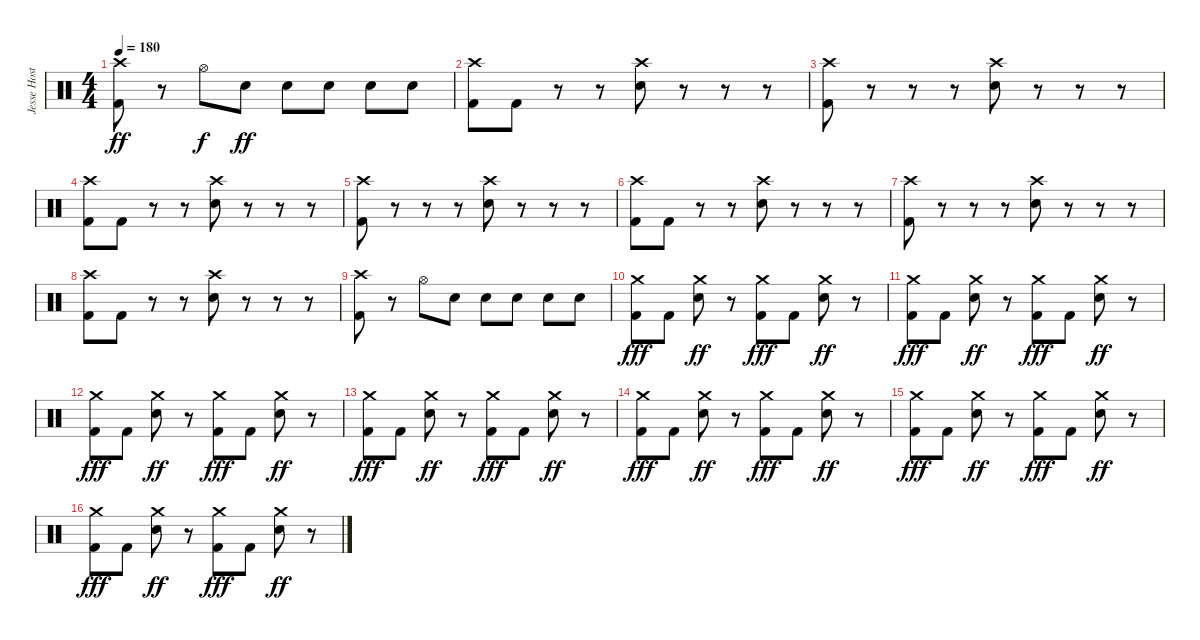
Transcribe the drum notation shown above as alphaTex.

\track ("Jesse Hostetler" "Jesse Host") {instrument percussion}
\staff {score}
\articulation defaults
\ts (4 4)
\tempo 180
\clef neutral
\ks c
("Crash high (hit)" "Kick (hit) 2").8{dy ff} r.8 "Hi-Hat (open)".8{dy f} "Electric Snare (hit)".8{dy ff} "Electric Snare (hit)".8 "Electric Snare (hit)".8 "Electric Snare (hit)".8 "Electric Snare (hit)".8 |
("Crash high (hit)" "Kick (hit) 2").8 "Kick (hit) 2".8 r.8 r.8 ("Crash high (hit)" "Electric Snare (hit)").8 r.8 r.8 r.8 |
("Crash high (hit)" "Kick (hit) 2").8 r.8 r.8 r.8 ("Crash high (hit)" "Electric Snare (hit)").8 r.8 r.8 r.8 |
("Crash high (hit)" "Kick (hit) 2").8 "Kick (hit) 2".8 r.8 r.8 ("Crash high (hit)" "Electric Snare (hit)").8 r.8 r.8 r.8 |
("Crash high (hit)" "Kick (hit) 2").8 r.8 r.8 r.8 ("Crash high (hit)" "Electric Snare (hit)").8 r.8 r.8 r.8 |
("Crash high (hit)" "Kick (hit) 2").8 "Kick (hit) 2".8 r.8 r.8 ("Crash high (hit)" "Electric Snare (hit)").8 r.8 r.8 r.8 |
("Crash high (hit)" "Kick (hit) 2").8 r.8 r.8 r.8 ("Crash high (hit)" "Electric Snare (hit)").8 r.8 r.8 r.8 |
("Crash high (hit)" "Kick (hit) 2").8 "Kick (hit) 2".8 r.8 r.8 ("Crash high (hit)" "Electric Snare (hit)").8 r.8 r.8 r.8 |
("Crash high (hit)" "Kick (hit) 2").8 r.8 "Hi-Hat (open)".8 "Electric Snare (hit)".8 "Electric Snare (hit)".8 "Electric Snare (hit)".8 "Electric Snare (hit)".8 "Electric Snare (hit)".8 |
("Crash medium (hit)" "Kick (hit) 2").8{dy fff} "Kick (hit) 2".8 ("Crash medium (hit)" "Electric Snare (hit)").8{dy ff} r.8 ("Crash medium (hit)" "Kick (hit) 2").8{dy fff} "Kick (hit) 2".8 ("Crash medium (hit)" "Electric Snare (hit)").8{dy ff} r.8 |
("Crash medium (hit)" "Kick (hit) 2").8{dy fff} "Kick (hit) 2".8 ("Crash medium (hit)" "Electric Snare (hit)").8{dy ff} r.8 ("Crash medium (hit)" "Kick (hit) 2").8{dy fff} "Kick (hit) 2".8 ("Crash medium (hit)" "Electric Snare (hit)").8{dy ff} r.8 |
("Crash medium (hit)" "Kick (hit) 2").8{dy fff} "Kick (hit) 2".8 ("Crash medium (hit)" "Electric Snare (hit)").8{dy ff} r.8 ("Crash medium (hit)" "Kick (hit) 2").8{dy fff} "Kick (hit) 2".8 ("Crash medium (hit)" "Electric Snare (hit)").8{dy ff} r.8 |
("Crash medium (hit)" "Kick (hit) 2").8{dy fff} "Kick (hit) 2".8 ("Crash medium (hit)" "Electric Snare (hit)").8{dy ff} r.8 ("Crash medium (hit)" "Kick (hit) 2").8{dy fff} "Kick (hit) 2".8 ("Crash medium (hit)" "Electric Snare (hit)").8{dy ff} r.8 |
("Crash medium (hit)" "Kick (hit) 2").8{dy fff} "Kick (hit) 2".8 ("Crash medium (hit)" "Electric Snare (hit)").8{dy ff} r.8 ("Crash medium (hit)" "Kick (hit) 2").8{dy fff} "Kick (hit) 2".8 ("Crash medium (hit)" "Electric Snare (hit)").8{dy ff} r.8 |
("Crash medium (hit)" "Kick (hit) 2").8{dy fff} "Kick (hit) 2".8 ("Crash medium (hit)" "Electric Snare (hit)").8{dy ff} r.8 ("Crash medium (hit)" "Kick (hit) 2").8{dy fff} "Kick (hit) 2".8 ("Crash medium (hit)" "Electric Snare (hit)").8{dy ff} r.8 |
("Crash medium (hit)" "Kick (hit) 2").8{dy fff} "Kick (hit) 2".8 ("Crash medium (hit)" "Electric Snare (hit)").8{dy ff} r.8 ("Crash medium (hit)" "Kick (hit) 2").8{dy fff} "Kick (hit) 2".8 ("Crash medium (hit)" "Electric Snare (hit)").8{dy ff} r.8
